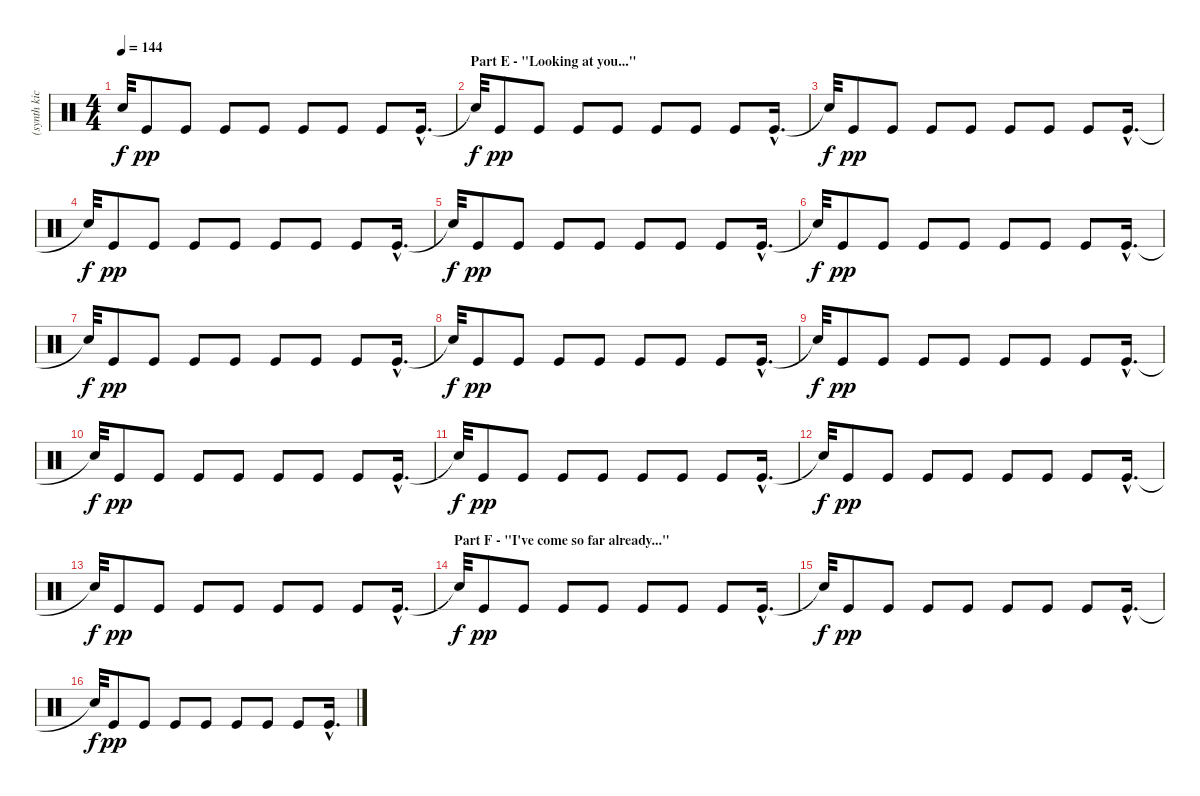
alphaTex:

\track ("(synth kick loop reverb)" "(synth kic") {instrument percussion}
\staff {score}
\articulation defaults
\ts (4 4)
\tempo 144
\clef neutral
\ks c "Snare (hit)"{t}.32{dy f} "Kick (hit)".8{dy pp} "Kick (hit)".8 "Kick (hit)".8 "Kick (hit)".8 "Kick (hit)".8 "Kick (hit)".8 "Kick (hit)".8 "Kick (hit)"{hac}.16{d}
|
\section ("" "Part E - \"Looking at you...\"")
"Snare (hit)"{t}.32{dy f} "Kick (hit)".8{dy pp} "Kick (hit)".8 "Kick (hit)".8 "Kick (hit)".8 "Kick (hit)".8 "Kick (hit)".8 "Kick (hit)".8 "Kick (hit)"{hac}.16{d} |
"Snare (hit)"{t}.32{dy f} "Kick (hit)".8{dy pp} "Kick (hit)".8 "Kick (hit)".8 "Kick (hit)".8 "Kick (hit)".8 "Kick (hit)".8 "Kick (hit)".8 "Kick (hit)"{hac}.16{d} |
"Snare (hit)"{t}.32{dy f} "Kick (hit)".8{dy pp} "Kick (hit)".8 "Kick (hit)".8 "Kick (hit)".8 "Kick (hit)".8 "Kick (hit)".8 "Kick (hit)".8 "Kick (hit)"{hac}.16{d} |
"Snare (hit)"{t}.32{dy f} "Kick (hit)".8{dy pp} "Kick (hit)".8 "Kick (hit)".8 "Kick (hit)".8 "Kick (hit)".8 "Kick (hit)".8 "Kick (hit)".8 "Kick (hit)"{hac}.16{d} |
"Snare (hit)"{t}.32{dy f} "Kick (hit)".8{dy pp} "Kick (hit)".8 "Kick (hit)".8 "Kick (hit)".8 "Kick (hit)".8 "Kick (hit)".8 "Kick (hit)".8 "Kick (hit)"{hac}.16{d} |
"Snare (hit)"{t}.32{dy f} "Kick (hit)".8{dy pp} "Kick (hit)".8 "Kick (hit)".8 "Kick (hit)".8 "Kick (hit)".8 "Kick (hit)".8 "Kick (hit)".8 "Kick (hit)"{hac}.16{d} |
"Snare (hit)"{t}.32{dy f} "Kick (hit)".8{dy pp} "Kick (hit)".8 "Kick (hit)".8 "Kick (hit)".8 "Kick (hit)".8 "Kick (hit)".8 "Kick (hit)".8 "Kick (hit)"{hac}.16{d} |
"Snare (hit)"{t}.32{dy f} "Kick (hit)".8{dy pp} "Kick (hit)".8 "Kick (hit)".8 "Kick (hit)".8 "Kick (hit)".8 "Kick (hit)".8 "Kick (hit)".8 "Kick (hit)"{hac}.16{d} |
"Snare (hit)"{t}.32{dy f} "Kick (hit)".8{dy pp} "Kick (hit)".8 "Kick (hit)".8 "Kick (hit)".8 "Kick (hit)".8 "Kick (hit)".8 "Kick (hit)".8 "Kick (hit)"{hac}.16{d} |
"Snare (hit)"{t}.32{dy f} "Kick (hit)".8{dy pp} "Kick (hit)".8 "Kick (hit)".8 "Kick (hit)".8 "Kick (hit)".8 "Kick (hit)".8 "Kick (hit)".8 "Kick (hit)"{hac}.16{d} |
"Snare (hit)"{t}.32{dy f} "Kick (hit)".8{dy pp} "Kick (hit)".8 "Kick (hit)".8 "Kick (hit)".8 "Kick (hit)".8 "Kick (hit)".8 "Kick (hit)".8 "Kick (hit)"{hac}.16{d} |
"Snare (hit)"{t}.32{dy f} "Kick (hit)".8{dy pp} "Kick (hit)".8 "Kick (hit)".8 "Kick (hit)".8 "Kick (hit)".8 "Kick (hit)".8 "Kick (hit)".8 "Kick (hit)"{hac}.16{d} |
\section ("" "Part F - \"I've come so far already...\"")
"Snare (hit)"{t}.32{dy f} "Kick (hit)".8{dy pp} "Kick (hit)".8 "Kick (hit)".8 "Kick (hit)".8 "Kick (hit)".8 "Kick (hit)".8 "Kick (hit)".8 "Kick (hit)"{hac}.16{d} |
"Snare (hit)"{t}.32{dy f} "Kick (hit)".8{dy pp} "Kick (hit)".8 "Kick (hit)".8 "Kick (hit)".8 "Kick (hit)".8 "Kick (hit)".8 "Kick (hit)".8 "Kick (hit)"{hac}.16{d} |
"Snare (hit)"{t}.32{dy f} "Kick (hit)".8{dy pp} "Kick (hit)".8 "Kick (hit)".8 "Kick (hit)".8 "Kick (hit)".8 "Kick (hit)".8 "Kick (hit)".8 "Kick (hit)"{hac}.16{d}
